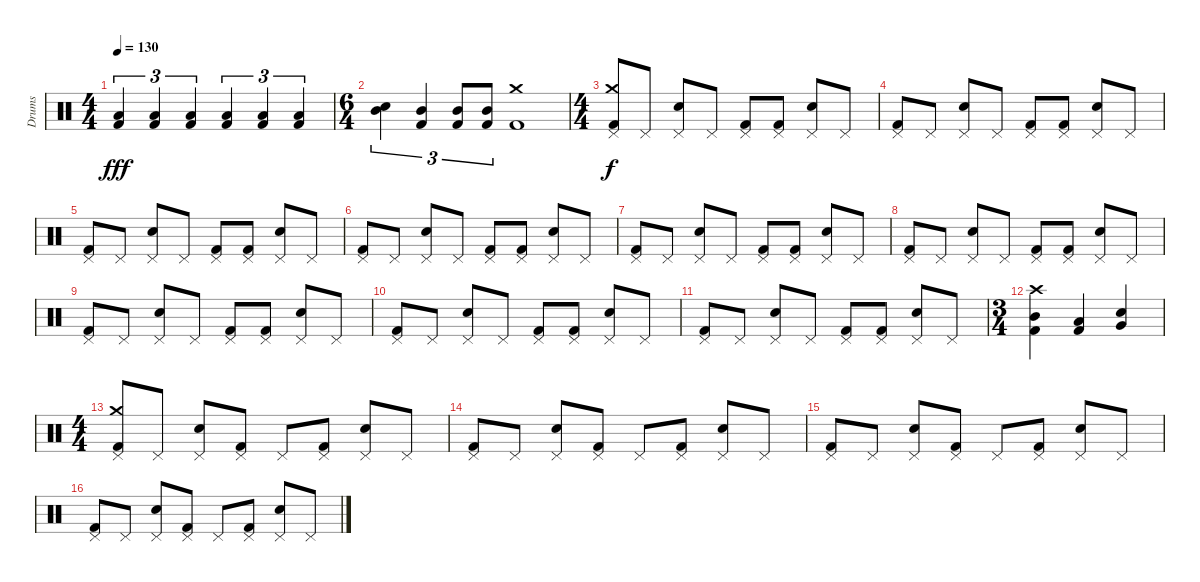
\track ("Drums" "Drums") {instrument percussion}
\staff {score}
\articulation defaults
\ts (4 4)
\tempo 130
\clef neutral
\ks c
("Low Tom (hit)" "Kick (hit) 2").4{tu (3 2) dy fff} ("Low Tom (hit)" "Kick (hit) 2").4{tu (3 2)} ("Low Tom (hit)" "Kick (hit) 2").4{tu (3 2)} ("Low Tom (hit)" "Kick (hit) 2").4{tu (3 2)} ("Low Tom (hit)" "Kick (hit) 2").4{tu (3 2)} ("Low Tom (hit)" "Kick (hit) 2").4{tu (3 2)} |
\ts (6 4)
("Electric Snare (hit)" "Mid Tom (hit)").4{tu (3 2)} ("Mid Tom (hit)" "Kick (hit) 2").4{tu (3 2)} ("Mid Tom (hit)" "Kick (hit) 2").8{tu (3 2)} ("Mid Tom (hit)" "Kick (hit) 2").8{tu (3 2)} ("Crash medium (hit)" "Kick (hit) 2").1 |
\ts (4 4)
("Kick (hit) 2" "Crash medium (hit)" "Pedal Hi-Hat (hit)").8{dy f} "Pedal Hi-Hat (hit)".8 ("Electric Snare (hit)" "Pedal Hi-Hat (hit)").8 "Pedal Hi-Hat (hit)".8 ("Kick (hit) 2" "Pedal Hi-Hat (hit)").8 ("Kick (hit) 2" "Pedal Hi-Hat (hit)").8 ("Electric Snare (hit)" "Pedal Hi-Hat (hit)").8 "Pedal Hi-Hat (hit)".8 |
("Kick (hit) 2" "Pedal Hi-Hat (hit)").8 "Pedal Hi-Hat (hit)".8 ("Electric Snare (hit)" "Pedal Hi-Hat (hit)").8 "Pedal Hi-Hat (hit)".8 ("Kick (hit) 2" "Pedal Hi-Hat (hit)").8 ("Kick (hit) 2" "Pedal Hi-Hat (hit)").8 ("Electric Snare (hit)" "Pedal Hi-Hat (hit)").8 "Pedal Hi-Hat (hit)".8 |
("Kick (hit) 2" "Pedal Hi-Hat (hit)").8 "Pedal Hi-Hat (hit)".8 ("Electric Snare (hit)" "Pedal Hi-Hat (hit)").8 "Pedal Hi-Hat (hit)".8 ("Kick (hit) 2" "Pedal Hi-Hat (hit)").8 ("Kick (hit) 2" "Pedal Hi-Hat (hit)").8 ("Electric Snare (hit)" "Pedal Hi-Hat (hit)").8 "Pedal Hi-Hat (hit)".8 |
("Kick (hit) 2" "Pedal Hi-Hat (hit)").8 "Pedal Hi-Hat (hit)".8 ("Electric Snare (hit)" "Pedal Hi-Hat (hit)").8 "Pedal Hi-Hat (hit)".8 ("Kick (hit) 2" "Pedal Hi-Hat (hit)").8 ("Kick (hit) 2" "Pedal Hi-Hat (hit)").8 ("Electric Snare (hit)" "Pedal Hi-Hat (hit)").8 "Pedal Hi-Hat (hit)".8 |
("Kick (hit) 2" "Pedal Hi-Hat (hit)").8 "Pedal Hi-Hat (hit)".8 ("Electric Snare (hit)" "Pedal Hi-Hat (hit)").8 "Pedal Hi-Hat (hit)".8 ("Kick (hit) 2" "Pedal Hi-Hat (hit)").8 ("Kick (hit) 2" "Pedal Hi-Hat (hit)").8 ("Electric Snare (hit)" "Pedal Hi-Hat (hit)").8 "Pedal Hi-Hat (hit)".8 |
("Kick (hit) 2" "Pedal Hi-Hat (hit)").8 "Pedal Hi-Hat (hit)".8 ("Electric Snare (hit)" "Pedal Hi-Hat (hit)").8 "Pedal Hi-Hat (hit)".8 ("Kick (hit) 2" "Pedal Hi-Hat (hit)").8 ("Kick (hit) 2" "Pedal Hi-Hat (hit)").8 ("Electric Snare (hit)" "Pedal Hi-Hat (hit)").8 "Pedal Hi-Hat (hit)".8 |
("Kick (hit) 2" "Pedal Hi-Hat (hit)").8 "Pedal Hi-Hat (hit)".8 ("Electric Snare (hit)" "Pedal Hi-Hat (hit)").8 "Pedal Hi-Hat (hit)".8 ("Kick (hit) 2" "Pedal Hi-Hat (hit)").8 ("Kick (hit) 2" "Pedal Hi-Hat (hit)").8 ("Electric Snare (hit)" "Pedal Hi-Hat (hit)").8 "Pedal Hi-Hat (hit)".8 |
("Kick (hit) 2" "Pedal Hi-Hat (hit)").8 "Pedal Hi-Hat (hit)".8 ("Electric Snare (hit)" "Pedal Hi-Hat (hit)").8 "Pedal Hi-Hat (hit)".8 ("Kick (hit) 2" "Pedal Hi-Hat (hit)").8 ("Kick (hit) 2" "Pedal Hi-Hat (hit)").8 ("Electric Snare (hit)" "Pedal Hi-Hat (hit)").8 "Pedal Hi-Hat (hit)".8 |
("Kick (hit) 2" "Pedal Hi-Hat (hit)").8 "Pedal Hi-Hat (hit)".8 ("Electric Snare (hit)" "Pedal Hi-Hat (hit)").8 "Pedal Hi-Hat (hit)".8 ("Kick (hit) 2" "Pedal Hi-Hat (hit)").8 ("Kick (hit) 2" "Pedal Hi-Hat (hit)").8 ("Electric Snare (hit)" "Pedal Hi-Hat (hit)").8 "Pedal Hi-Hat (hit)".8 |
\ts (3 4)
("Crash high (hit)" "Mid Tom (hit)" "Kick (hit) 2").4 ("Low Tom (hit)" "Kick (hit) 2").4 ("Very Low Tom (hit)" "Snare (hit)").4 |
\ts (4 4)
("Crash medium (hit)" "Kick (hit) 2" "Pedal Hi-Hat (hit)").8 "Pedal Hi-Hat (hit)".8 ("Electric Snare (hit)" "Pedal Hi-Hat (hit)").8 ("Kick (hit) 2" "Pedal Hi-Hat (hit)").8 "Pedal Hi-Hat (hit)".8 ("Kick (hit) 2" "Pedal Hi-Hat (hit)").8 ("Electric Snare (hit)" "Pedal Hi-Hat (hit)").8 "Pedal Hi-Hat (hit)".8 |
("Kick (hit) 2" "Pedal Hi-Hat (hit)").8 "Pedal Hi-Hat (hit)".8 ("Electric Snare (hit)" "Pedal Hi-Hat (hit)").8 ("Kick (hit) 2" "Pedal Hi-Hat (hit)").8 "Pedal Hi-Hat (hit)".8 ("Kick (hit) 2" "Pedal Hi-Hat (hit)").8 ("Electric Snare (hit)" "Pedal Hi-Hat (hit)").8 "Pedal Hi-Hat (hit)".8 |
("Kick (hit) 2" "Pedal Hi-Hat (hit)").8 "Pedal Hi-Hat (hit)".8 ("Electric Snare (hit)" "Pedal Hi-Hat (hit)").8 ("Kick (hit) 2" "Pedal Hi-Hat (hit)").8 "Pedal Hi-Hat (hit)".8 ("Kick (hit) 2" "Pedal Hi-Hat (hit)").8 ("Electric Snare (hit)" "Pedal Hi-Hat (hit)").8 "Pedal Hi-Hat (hit)".8 |
("Kick (hit) 2" "Pedal Hi-Hat (hit)").8 "Pedal Hi-Hat (hit)".8 ("Electric Snare (hit)" "Pedal Hi-Hat (hit)").8 ("Kick (hit) 2" "Pedal Hi-Hat (hit)").8 "Pedal Hi-Hat (hit)".8 ("Kick (hit) 2" "Pedal Hi-Hat (hit)").8 ("Electric Snare (hit)" "Pedal Hi-Hat (hit)").8 "Pedal Hi-Hat (hit)".8
